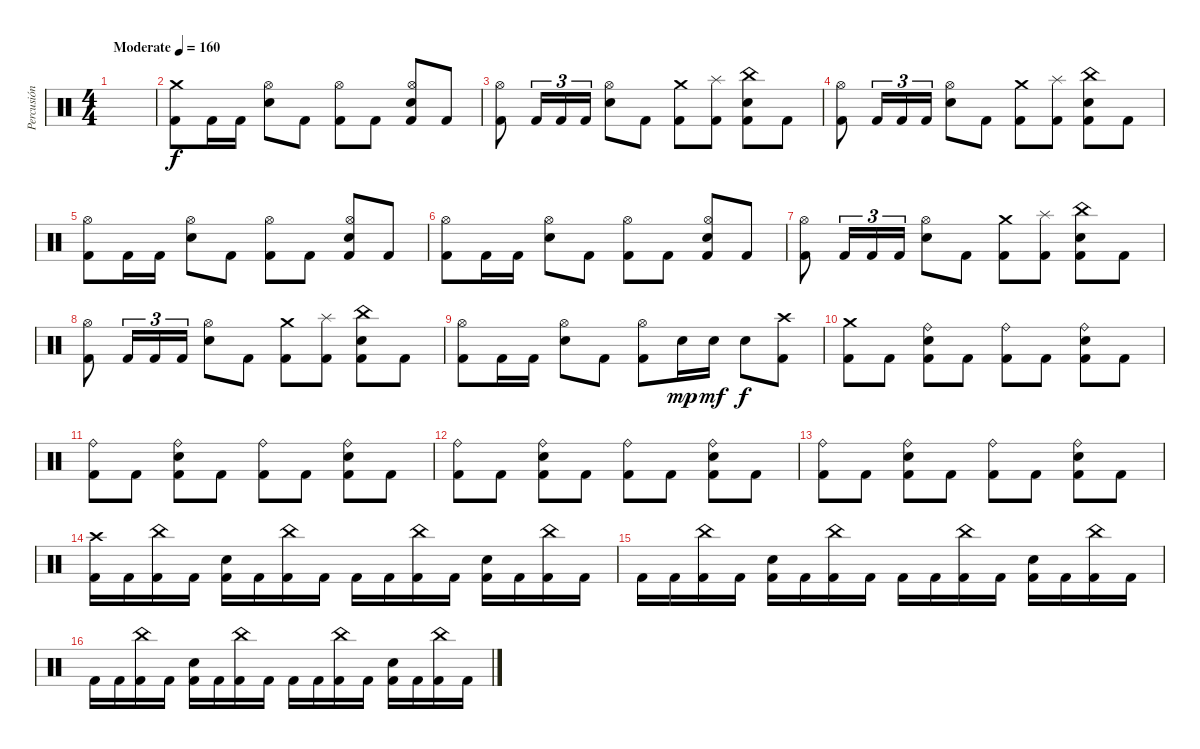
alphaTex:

\track ("Percusión" "Percusión") {instrument percussion}
\staff {score}
\articulation defaults
\ts (4 4)
\tempo (160 "Moderate")
\clef neutral
\ks c
|
("Crash medium (hit)" "Kick (hit) 2").8 "Kick (hit) 2".16 "Kick (hit) 2".16 ("Hi-Hat (open)" "Electric Snare (hit)").8 "Kick (hit) 2".8 ("Hi-Hat (open)" "Kick (hit) 2").8 "Kick (hit) 2".8 ("Hi-Hat (open)" "Electric Snare (hit)" "Kick (hit) 2").8 "Kick (hit) 2".8 |
("Hi-Hat (open)" "Kick (hit) 2").8 "Kick (hit) 2".16{tu (3 2)} "Kick (hit) 2".16{tu (3 2)} "Kick (hit) 2".16{tu (3 2)} ("Hi-Hat (open)" "Electric Snare (hit)").8 "Kick (hit) 2".8 ("Crash medium (hit)" "Kick (hit) 2").8 ("Splash (hit)" "Kick (hit) 2").8 ("China (hit)" "Electric Snare (hit)" "Kick (hit) 2").8 "Kick (hit) 2".8 |
("Hi-Hat (open)" "Kick (hit) 2").8 "Kick (hit) 2".16{tu (3 2)} "Kick (hit) 2".16{tu (3 2)} "Kick (hit) 2".16{tu (3 2)} ("Hi-Hat (open)" "Electric Snare (hit)").8 "Kick (hit) 2".8 ("Crash medium (hit)" "Kick (hit) 2").8 ("Splash (hit)" "Kick (hit) 2").8 ("China (hit)" "Electric Snare (hit)" "Kick (hit) 2").8 "Kick (hit) 2".8 |
("Hi-Hat (open)" "Kick (hit) 2").8 "Kick (hit) 2".16 "Kick (hit) 2".16 ("Hi-Hat (open)" "Electric Snare (hit)").8 "Kick (hit) 2".8 ("Hi-Hat (open)" "Kick (hit) 2").8 "Kick (hit) 2".8 ("Hi-Hat (open)" "Electric Snare (hit)" "Kick (hit) 2").8 "Kick (hit) 2".8 |
("Hi-Hat (open)" "Kick (hit) 2").8 "Kick (hit) 2".16 "Kick (hit) 2".16 ("Hi-Hat (open)" "Electric Snare (hit)").8 "Kick (hit) 2".8 ("Hi-Hat (open)" "Kick (hit) 2").8 "Kick (hit) 2".8 ("Hi-Hat (open)" "Electric Snare (hit)" "Kick (hit) 2").8 "Kick (hit) 2".8 |
("Hi-Hat (open)" "Kick (hit) 2").8 "Kick (hit) 2".16{tu (3 2)} "Kick (hit) 2".16{tu (3 2)} "Kick (hit) 2".16{tu (3 2)} ("Hi-Hat (open)" "Electric Snare (hit)").8 "Kick (hit) 2".8 ("Crash medium (hit)" "Kick (hit) 2").8 ("Splash (hit)" "Kick (hit) 2").8 ("China (hit)" "Electric Snare (hit)" "Kick (hit) 2").8 "Kick (hit) 2".8 |
("Hi-Hat (open)" "Kick (hit) 2").8 "Kick (hit) 2".16{tu (3 2)} "Kick (hit) 2".16{tu (3 2)} "Kick (hit) 2".16{tu (3 2)} ("Hi-Hat (open)" "Electric Snare (hit)").8 "Kick (hit) 2".8 ("Crash medium (hit)" "Kick (hit) 2").8 ("Splash (hit)" "Kick (hit) 2").8 ("China (hit)" "Electric Snare (hit)" "Kick (hit) 2").8 "Kick (hit) 2".8 |
("Hi-Hat (open)" "Kick (hit) 2").8 "Kick (hit) 2".16 "Kick (hit) 2".16 ("Hi-Hat (open)" "Electric Snare (hit)").8 "Kick (hit) 2".8 ("Hi-Hat (open)" "Kick (hit) 2").8 "Electric Snare (hit)".16{dy mp} "Electric Snare (hit)".16{dy mf} "Electric Snare (hit)".8{dy f} ("Crash high (hit)" "Kick (hit) 2").8 |
("Crash medium (hit)" "Kick (hit) 2").8 "Kick (hit) 2".8 ("Ride (bell)" "Electric Snare (hit)" "Kick (hit) 2").8 "Kick (hit) 2".8 ("Ride (bell)" "Kick (hit) 2").8 "Kick (hit) 2".8 ("Ride (bell)" "Electric Snare (hit)" "Kick (hit) 2").8 "Kick (hit) 2".8 |
("Ride (bell)" "Kick (hit) 2").8 "Kick (hit) 2".8 ("Ride (bell)" "Electric Snare (hit)" "Kick (hit) 2").8 "Kick (hit) 2".8 ("Ride (bell)" "Kick (hit) 2").8 "Kick (hit) 2".8 ("Ride (bell)" "Electric Snare (hit)" "Kick (hit) 2").8 "Kick (hit) 2".8 |
("Ride (bell)" "Kick (hit) 2").8 "Kick (hit) 2".8 ("Ride (bell)" "Electric Snare (hit)" "Kick (hit) 2").8 "Kick (hit) 2".8 ("Ride (bell)" "Kick (hit) 2").8 "Kick (hit) 2".8 ("Ride (bell)" "Electric Snare (hit)" "Kick (hit) 2").8 "Kick (hit) 2".8 |
("Ride (bell)" "Kick (hit) 2").8 "Kick (hit) 2".8 ("Ride (bell)" "Electric Snare (hit)" "Kick (hit) 2").8 "Kick (hit) 2".8 ("Ride (bell)" "Kick (hit) 2").8 "Kick (hit) 2".8 ("Ride (bell)" "Electric Snare (hit)" "Kick (hit) 2").8 "Kick (hit) 2".8 |
("Crash high (hit)" "Kick (hit) 2").16 "Kick (hit) 2".16 ("China (hit)" "Kick (hit) 2").16 "Kick (hit) 2".16 ("Electric Snare (hit)" "Kick (hit) 2").16 "Kick (hit) 2".16 ("China (hit)" "Kick (hit) 2").16 "Kick (hit) 2".16 "Kick (hit) 2".16 "Kick (hit) 2".16 ("China (hit)" "Kick (hit) 2").16 "Kick (hit) 2".16 ("Electric Snare (hit)" "Kick (hit) 2").16 "Kick (hit) 2".16 ("China (hit)" "Kick (hit) 2").16 "Kick (hit) 2".16 |
"Kick (hit) 2".16 "Kick (hit) 2".16 ("China (hit)" "Kick (hit) 2").16 "Kick (hit) 2".16 ("Electric Snare (hit)" "Kick (hit) 2").16 "Kick (hit) 2".16 ("China (hit)" "Kick (hit) 2").16 "Kick (hit) 2".16 "Kick (hit) 2".16 "Kick (hit) 2".16 ("China (hit)" "Kick (hit) 2").16 "Kick (hit) 2".16 ("Electric Snare (hit)" "Kick (hit) 2").16 "Kick (hit) 2".16 ("China (hit)" "Kick (hit) 2").16 "Kick (hit) 2".16 |
"Kick (hit) 2".16 "Kick (hit) 2".16 ("China (hit)" "Kick (hit) 2").16 "Kick (hit) 2".16 ("Electric Snare (hit)" "Kick (hit) 2").16 "Kick (hit) 2".16 ("China (hit)" "Kick (hit) 2").16 "Kick (hit) 2".16 "Kick (hit) 2".16 "Kick (hit) 2".16 ("China (hit)" "Kick (hit) 2").16 "Kick (hit) 2".16 ("Electric Snare (hit)" "Kick (hit) 2").16 "Kick (hit) 2".16 ("China (hit)" "Kick (hit) 2").16 "Kick (hit) 2".16
